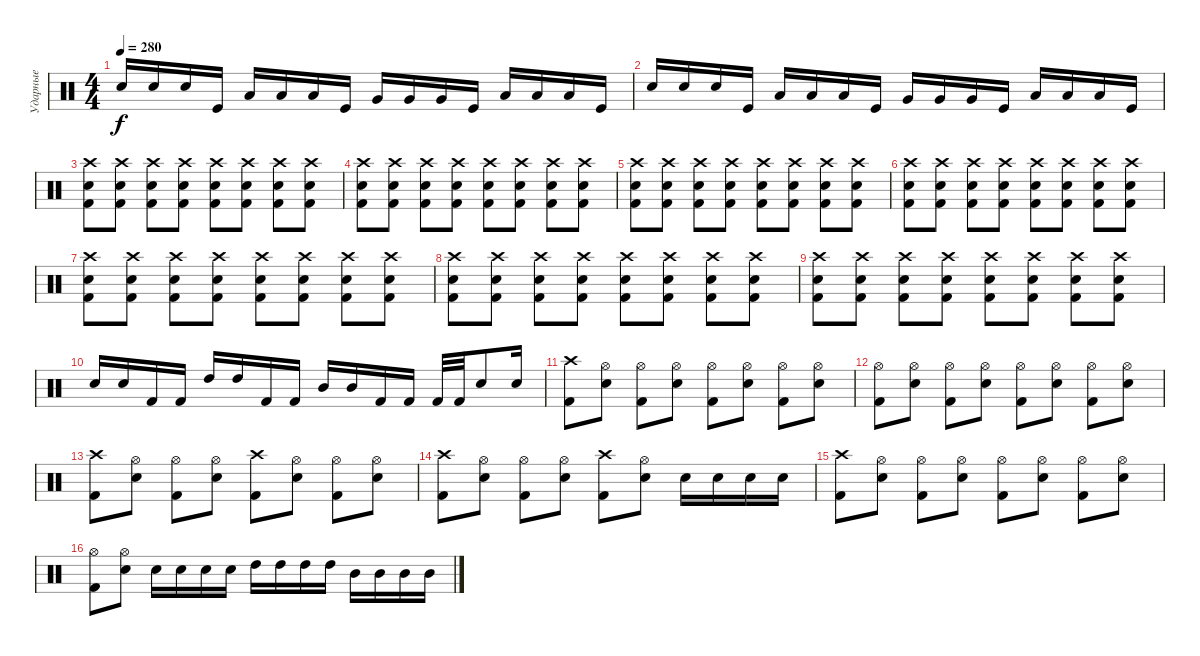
\track ("Ударные" "Ударные") {instrument percussion}
\staff {score}
\articulation defaults
\ts (4 4)
\tempo 280
\clef neutral
\ks c "Snare (hit) 2".16{dy f} "Snare (hit) 2".16 "Snare (hit) 2".16 "Kick (hit)".16 "Low Tom (hit)".16 "Low Tom (hit)".16 "Low Tom (hit)".16 "Kick (hit)".16 "Very Low Tom (hit)".16 "Very Low Tom (hit)".16 "Very Low Tom (hit)".16 "Kick (hit)".16 "Low Floor Tom (hit)".16 "Low Floor Tom (hit)".16 "Low Floor Tom (hit)".16 "Kick (hit)".16
|
"Snare (hit) 2".16 "Snare (hit) 2".16 "Snare (hit) 2".16 "Kick (hit)".16 "Low Tom (hit)".16 "Low Tom (hit)".16 "Low Tom (hit)".16 "Kick (hit)".16 "Very Low Tom (hit)".16 "Very Low Tom (hit)".16 "Very Low Tom (hit)".16 "Kick (hit)".16 "Low Floor Tom (hit)".16 "Low Floor Tom (hit)".16 "Low Floor Tom (hit)".16 "Kick (hit)".16 |
("Crash high (hit)" "Electric Snare (hit)" "Kick (hit) 2").8 ("Crash high (hit)" "Electric Snare (hit)" "Kick (hit) 2").8 ("Crash high (hit)" "Electric Snare (hit)" "Kick (hit) 2").8 ("Crash high (hit)" "Electric Snare (hit)" "Kick (hit) 2").8 ("Crash high (hit)" "Electric Snare (hit)" "Kick (hit) 2").8 ("Crash high (hit)" "Electric Snare (hit)" "Kick (hit) 2").8 ("Crash high (hit)" "Electric Snare (hit)" "Kick (hit) 2").8 ("Crash high (hit)" "Electric Snare (hit)" "Kick (hit) 2").8 |
("Crash high (hit)" "Electric Snare (hit)" "Kick (hit) 2").8 ("Crash high (hit)" "Electric Snare (hit)" "Kick (hit) 2").8 ("Crash high (hit)" "Electric Snare (hit)" "Kick (hit) 2").8 ("Crash high (hit)" "Electric Snare (hit)" "Kick (hit) 2").8 ("Crash high (hit)" "Electric Snare (hit)" "Kick (hit) 2").8 ("Crash high (hit)" "Electric Snare (hit)" "Kick (hit) 2").8 ("Crash high (hit)" "Electric Snare (hit)" "Kick (hit) 2").8 ("Crash high (hit)" "Electric Snare (hit)" "Kick (hit) 2").8 |
("Crash high (hit)" "Electric Snare (hit)" "Kick (hit) 2").8 ("Crash high (hit)" "Electric Snare (hit)" "Kick (hit) 2").8 ("Crash high (hit)" "Electric Snare (hit)" "Kick (hit) 2").8 ("Crash high (hit)" "Electric Snare (hit)" "Kick (hit) 2").8 ("Crash high (hit)" "Electric Snare (hit)" "Kick (hit) 2").8 ("Crash high (hit)" "Electric Snare (hit)" "Kick (hit) 2").8 ("Crash high (hit)" "Electric Snare (hit)" "Kick (hit) 2").8 ("Crash high (hit)" "Electric Snare (hit)" "Kick (hit) 2").8 |
("Crash high (hit)" "Electric Snare (hit)" "Kick (hit) 2").8 ("Crash high (hit)" "Electric Snare (hit)" "Kick (hit) 2").8 ("Crash high (hit)" "Electric Snare (hit)" "Kick (hit) 2").8 ("Crash high (hit)" "Electric Snare (hit)" "Kick (hit) 2").8 ("Crash high (hit)" "Electric Snare (hit)" "Kick (hit) 2").8 ("Crash high (hit)" "Electric Snare (hit)" "Kick (hit) 2").8 ("Crash high (hit)" "Electric Snare (hit)" "Kick (hit) 2").8 ("Crash high (hit)" "Electric Snare (hit)" "Kick (hit) 2").8 |
("Crash high (hit)" "Electric Snare (hit)" "Kick (hit) 2").8 ("Crash high (hit)" "Electric Snare (hit)" "Kick (hit) 2").8 ("Crash high (hit)" "Electric Snare (hit)" "Kick (hit) 2").8 ("Crash high (hit)" "Electric Snare (hit)" "Kick (hit) 2").8 ("Crash high (hit)" "Electric Snare (hit)" "Kick (hit) 2").8 ("Crash high (hit)" "Electric Snare (hit)" "Kick (hit) 2").8 ("Crash high (hit)" "Electric Snare (hit)" "Kick (hit) 2").8 ("Crash high (hit)" "Electric Snare (hit)" "Kick (hit) 2").8 |
("Crash high (hit)" "Electric Snare (hit)" "Kick (hit) 2").8 ("Crash high (hit)" "Electric Snare (hit)" "Kick (hit) 2").8 ("Crash high (hit)" "Electric Snare (hit)" "Kick (hit) 2").8 ("Crash high (hit)" "Electric Snare (hit)" "Kick (hit) 2").8 ("Crash high (hit)" "Electric Snare (hit)" "Kick (hit) 2").8 ("Crash high (hit)" "Electric Snare (hit)" "Kick (hit) 2").8 ("Crash high (hit)" "Electric Snare (hit)" "Kick (hit) 2").8 ("Crash high (hit)" "Electric Snare (hit)" "Kick (hit) 2").8 |
("Crash high (hit)" "Electric Snare (hit)" "Kick (hit) 2").8 ("Crash high (hit)" "Electric Snare (hit)" "Kick (hit) 2").8 ("Crash high (hit)" "Electric Snare (hit)" "Kick (hit) 2").8 ("Crash high (hit)" "Electric Snare (hit)" "Kick (hit) 2").8 ("Crash high (hit)" "Electric Snare (hit)" "Kick (hit) 2").8 ("Crash high (hit)" "Electric Snare (hit)" "Kick (hit) 2").8 ("Crash high (hit)" "Electric Snare (hit)" "Kick (hit) 2").8 ("Crash high (hit)" "Electric Snare (hit)" "Kick (hit) 2").8 |
"Electric Snare (hit)".16 "Electric Snare (hit)".16 "Kick (hit) 2".16 "Kick (hit) 2".16 "High Tom (hit)".16 "High Tom (hit)".16 "Kick (hit) 2".16 "Kick (hit) 2".16 "Mid Tom (hit)".16 "Mid Tom (hit)".16 "Kick (hit) 2".16 "Kick (hit) 2".16 "Kick (hit) 2".32 "Kick (hit) 2".32 "Electric Snare (hit)".8 "Electric Snare (hit)".16 |
("Crash high (hit)" "Kick (hit) 2").8 ("Hi-Hat (open)" "Electric Snare (hit)").8 ("Hi-Hat (open)" "Kick (hit) 2").8 ("Hi-Hat (open)" "Electric Snare (hit)").8 ("Hi-Hat (open)" "Kick (hit) 2").8 ("Hi-Hat (open)" "Electric Snare (hit)").8 ("Hi-Hat (open)" "Kick (hit) 2").8 ("Hi-Hat (open)" "Electric Snare (hit)").8 |
("Hi-Hat (open)" "Kick (hit) 2").8 ("Hi-Hat (open)" "Electric Snare (hit)").8 ("Hi-Hat (open)" "Kick (hit) 2").8 ("Hi-Hat (open)" "Electric Snare (hit)").8 ("Hi-Hat (open)" "Kick (hit) 2").8 ("Hi-Hat (open)" "Electric Snare (hit)").8 ("Hi-Hat (open)" "Kick (hit) 2").8 ("Hi-Hat (open)" "Electric Snare (hit)").8 |
("Crash high (hit)" "Kick (hit) 2").8 ("Hi-Hat (open)" "Electric Snare (hit)").8 ("Hi-Hat (open)" "Kick (hit) 2").8 ("Hi-Hat (open)" "Electric Snare (hit)").8 ("Crash high (hit)" "Kick (hit) 2").8 ("Hi-Hat (open)" "Electric Snare (hit)").8 ("Hi-Hat (open)" "Kick (hit) 2").8 ("Hi-Hat (open)" "Electric Snare (hit)").8 |
("Crash high (hit)" "Kick (hit) 2").8 ("Hi-Hat (open)" "Electric Snare (hit)").8 ("Hi-Hat (open)" "Kick (hit) 2").8 ("Hi-Hat (open)" "Electric Snare (hit)").8 ("Crash high (hit)" "Kick (hit) 2").8 ("Hi-Hat (open)" "Electric Snare (hit)").8 "Electric Snare (hit)".16 "Electric Snare (hit)".16 "Electric Snare (hit)".16 "Electric Snare (hit)".16 |
("Crash high (hit)" "Kick (hit) 2").8 ("Hi-Hat (open)" "Electric Snare (hit)").8 ("Hi-Hat (open)" "Kick (hit) 2").8 ("Hi-Hat (open)" "Electric Snare (hit)").8 ("Hi-Hat (open)" "Kick (hit) 2").8 ("Hi-Hat (open)" "Electric Snare (hit)").8 ("Hi-Hat (open)" "Kick (hit) 2").8 ("Hi-Hat (open)" "Electric Snare (hit)").8 |
("Hi-Hat (open)" "Kick (hit) 2").8 ("Hi-Hat (open)" "Electric Snare (hit)").8 "Electric Snare (hit)".16 "Electric Snare (hit)".16 "Electric Snare (hit)".16 "Electric Snare (hit)".16 "High Tom (hit)".16 "High Tom (hit)".16 "High Tom (hit)".16 "High Tom (hit)".16 "Mid Tom (hit)".16 "Mid Tom (hit)".16 "Mid Tom (hit)".16 "Mid Tom (hit)".16
